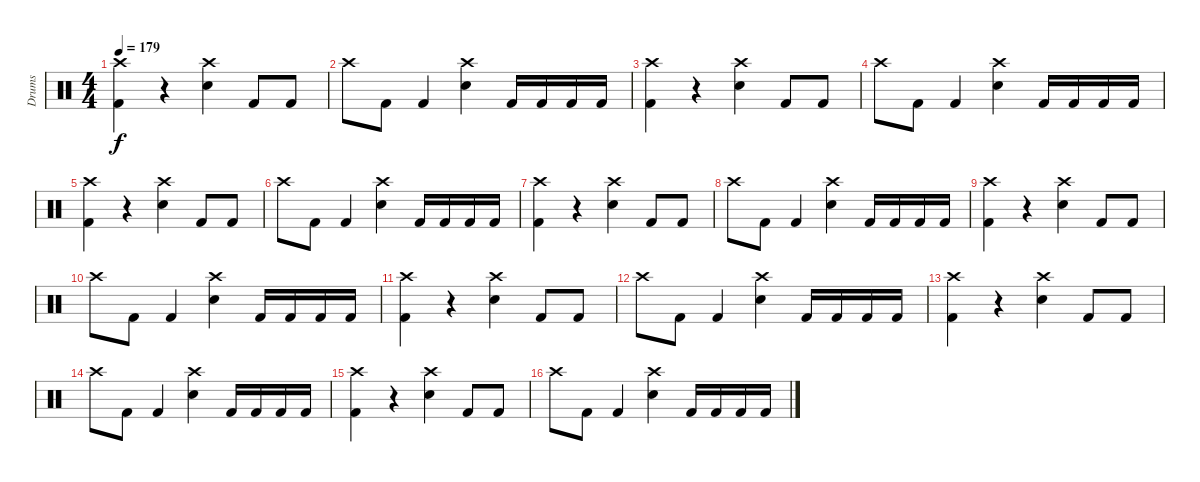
\track ("Drums" "Drums") {instrument percussion}
\staff {score}
\articulation defaults
\ts (4 4)
\tempo 179
\clef neutral
\ks c
("Crash high (hit)" "Kick (hit) 2").4{dy f} r.4 ("Crash high (hit)" "Snare (hit) 2").4 "Kick (hit) 2".8 "Kick (hit) 2".8 |
"Crash high (hit)".8 "Kick (hit) 2".8 "Kick (hit) 2".4 ("Crash high (hit)" "Snare (hit) 2").4 "Kick (hit) 2".16 "Kick (hit) 2".16 "Kick (hit) 2".16 "Kick (hit) 2".16 |
("Crash high (hit)" "Kick (hit) 2").4 r.4 ("Crash high (hit)" "Snare (hit) 2").4 "Kick (hit) 2".8 "Kick (hit) 2".8 |
"Crash high (hit)".8 "Kick (hit) 2".8 "Kick (hit) 2".4 ("Crash high (hit)" "Snare (hit) 2").4 "Kick (hit) 2".16 "Kick (hit) 2".16 "Kick (hit) 2".16 "Kick (hit) 2".16 |
("Crash high (hit)" "Kick (hit) 2").4 r.4 ("Crash high (hit)" "Snare (hit) 2").4 "Kick (hit) 2".8 "Kick (hit) 2".8 |
"Crash high (hit)".8 "Kick (hit) 2".8 "Kick (hit) 2".4 ("Crash high (hit)" "Snare (hit) 2").4 "Kick (hit) 2".16 "Kick (hit) 2".16 "Kick (hit) 2".16 "Kick (hit) 2".16 |
("Crash high (hit)" "Kick (hit) 2").4 r.4 ("Crash high (hit)" "Snare (hit) 2").4 "Kick (hit) 2".8 "Kick (hit) 2".8 |
"Crash high (hit)".8 "Kick (hit) 2".8 "Kick (hit) 2".4 ("Crash high (hit)" "Snare (hit) 2").4 "Kick (hit) 2".16 "Kick (hit) 2".16 "Kick (hit) 2".16 "Kick (hit) 2".16 |
("Crash high (hit)" "Kick (hit) 2").4 r.4 ("Crash high (hit)" "Snare (hit) 2").4 "Kick (hit) 2".8 "Kick (hit) 2".8 |
"Crash high (hit)".8 "Kick (hit) 2".8 "Kick (hit) 2".4 ("Crash high (hit)" "Snare (hit) 2").4 "Kick (hit) 2".16 "Kick (hit) 2".16 "Kick (hit) 2".16 "Kick (hit) 2".16 |
("Crash high (hit)" "Kick (hit) 2").4 r.4 ("Crash high (hit)" "Snare (hit) 2").4 "Kick (hit) 2".8 "Kick (hit) 2".8 |
"Crash high (hit)".8 "Kick (hit) 2".8 "Kick (hit) 2".4 ("Crash high (hit)" "Snare (hit) 2").4 "Kick (hit) 2".16 "Kick (hit) 2".16 "Kick (hit) 2".16 "Kick (hit) 2".16 |
("Crash high (hit)" "Kick (hit) 2").4 r.4 ("Crash high (hit)" "Snare (hit) 2").4 "Kick (hit) 2".8 "Kick (hit) 2".8 |
"Crash high (hit)".8 "Kick (hit) 2".8 "Kick (hit) 2".4 ("Crash high (hit)" "Snare (hit) 2").4 "Kick (hit) 2".16 "Kick (hit) 2".16 "Kick (hit) 2".16 "Kick (hit) 2".16 |
("Crash high (hit)" "Kick (hit) 2").4 r.4 ("Crash high (hit)" "Snare (hit) 2").4 "Kick (hit) 2".8 "Kick (hit) 2".8 |
"Crash high (hit)".8 "Kick (hit) 2".8 "Kick (hit) 2".4 ("Crash high (hit)" "Snare (hit) 2").4 "Kick (hit) 2".16 "Kick (hit) 2".16 "Kick (hit) 2".16 "Kick (hit) 2".16
